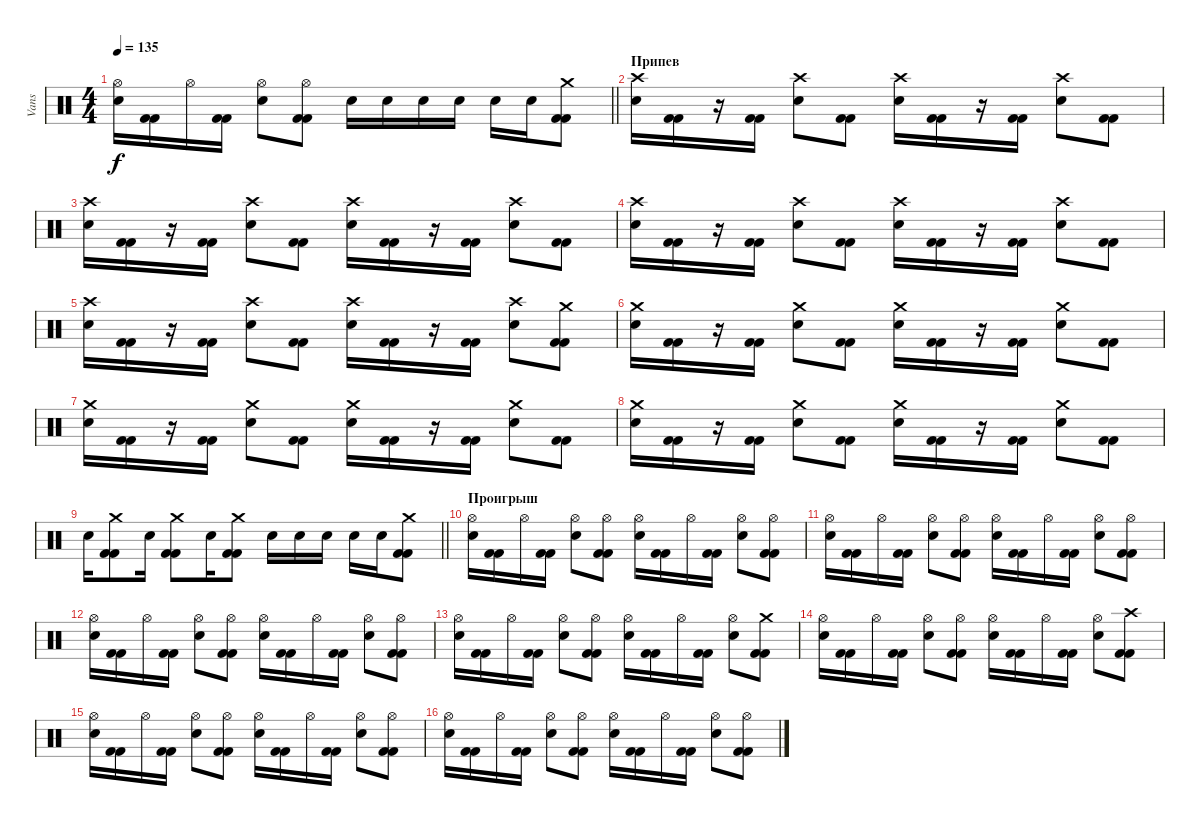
\track ("Vans" "Vans") {instrument percussion}
\staff {score}
\articulation defaults
\ts (4 4)
\tempo 135
\clef neutral
\barLineRight lightlight
\ks c
("Hi-Hat (open)" "Electric Snare (hit)").16{dy f} ("Kick (hit) 2" "Kick (hit) 2").16 "Hi-Hat (open)".16 ("Kick (hit) 2" "Kick (hit) 2").16 ("Hi-Hat (open)" "Electric Snare (hit)").8 ("Hi-Hat (open)" "Kick (hit) 2" "Kick (hit) 2").8 "Electric Snare (hit)".16 "Electric Snare (hit)".16 "Electric Snare (hit)".16 "Electric Snare (hit)".16 "Electric Snare (hit)".16 "Electric Snare (hit)".16 ("Crash medium (hit)" "Kick (hit) 2" "Kick (hit) 2").8 |
\section ("" "Припев")
("Crash high (hit)" "Electric Snare (hit)").16 ("Kick (hit) 2" "Kick (hit) 2").16 r.16 ("Kick (hit) 2" "Kick (hit) 2").16 ("Crash high (hit)" "Electric Snare (hit)").8 ("Kick (hit) 2" "Kick (hit) 2").8 ("Crash high (hit)" "Electric Snare (hit)").16 ("Kick (hit) 2" "Kick (hit) 2").16 r.16 ("Kick (hit) 2" "Kick (hit) 2").16 ("Crash high (hit)" "Electric Snare (hit)").8 ("Kick (hit) 2" "Kick (hit) 2").8 |
("Crash high (hit)" "Electric Snare (hit)").16 ("Kick (hit) 2" "Kick (hit) 2").16 r.16 ("Kick (hit) 2" "Kick (hit) 2").16 ("Crash high (hit)" "Electric Snare (hit)").8 ("Kick (hit) 2" "Kick (hit) 2").8 ("Crash high (hit)" "Electric Snare (hit)").16 ("Kick (hit) 2" "Kick (hit) 2").16 r.16 ("Kick (hit) 2" "Kick (hit) 2").16 ("Crash high (hit)" "Electric Snare (hit)").8 ("Kick (hit) 2" "Kick (hit) 2").8 |
("Crash high (hit)" "Electric Snare (hit)").16 ("Kick (hit) 2" "Kick (hit) 2").16 r.16 ("Kick (hit) 2" "Kick (hit) 2").16 ("Crash high (hit)" "Electric Snare (hit)").8 ("Kick (hit) 2" "Kick (hit) 2").8 ("Crash high (hit)" "Electric Snare (hit)").16 ("Kick (hit) 2" "Kick (hit) 2").16 r.16 ("Kick (hit) 2" "Kick (hit) 2").16 ("Crash high (hit)" "Electric Snare (hit)").8 ("Kick (hit) 2" "Kick (hit) 2").8 |
("Crash high (hit)" "Electric Snare (hit)").16 ("Kick (hit) 2" "Kick (hit) 2").16 r.16 ("Kick (hit) 2" "Kick (hit) 2").16 ("Crash high (hit)" "Electric Snare (hit)").8 ("Kick (hit) 2" "Kick (hit) 2").8 ("Crash high (hit)" "Electric Snare (hit)").16 ("Kick (hit) 2" "Kick (hit) 2").16 r.16 ("Kick (hit) 2" "Kick (hit) 2").16 ("Crash high (hit)" "Electric Snare (hit)").8 ("Crash medium (hit)" "Kick (hit) 2" "Kick (hit) 2").8 |
("Crash medium (hit)" "Electric Snare (hit)").16 ("Kick (hit) 2" "Kick (hit) 2").16 r.16 ("Kick (hit) 2" "Kick (hit) 2").16 ("Crash medium (hit)" "Electric Snare (hit)").8 ("Kick (hit) 2" "Kick (hit) 2").8 ("Crash medium (hit)" "Electric Snare (hit)").16 ("Kick (hit) 2" "Kick (hit) 2").16 r.16 ("Kick (hit) 2" "Kick (hit) 2").16 ("Crash medium (hit)" "Electric Snare (hit)").8 ("Kick (hit) 2" "Kick (hit) 2").8 |
("Crash medium (hit)" "Electric Snare (hit)").16 ("Kick (hit) 2" "Kick (hit) 2").16 r.16 ("Kick (hit) 2" "Kick (hit) 2").16 ("Crash medium (hit)" "Electric Snare (hit)").8 ("Kick (hit) 2" "Kick (hit) 2").8 ("Crash medium (hit)" "Electric Snare (hit)").16 ("Kick (hit) 2" "Kick (hit) 2").16 r.16 ("Kick (hit) 2" "Kick (hit) 2").16 ("Crash medium (hit)" "Electric Snare (hit)").8 ("Kick (hit) 2" "Kick (hit) 2").8 |
("Crash medium (hit)" "Electric Snare (hit)").16 ("Kick (hit) 2" "Kick (hit) 2").16 r.16 ("Kick (hit) 2" "Kick (hit) 2").16 ("Crash medium (hit)" "Electric Snare (hit)").8 ("Kick (hit) 2" "Kick (hit) 2").8 ("Crash medium (hit)" "Electric Snare (hit)").16 ("Kick (hit) 2" "Kick (hit) 2").16 r.16 ("Kick (hit) 2" "Kick (hit) 2").16 ("Crash medium (hit)" "Electric Snare (hit)").8 ("Kick (hit) 2" "Kick (hit) 2").8 |
\barLineRight lightlight "Electric Snare (hit)".16
("Crash medium (hit)" "Kick (hit) 2" "Kick (hit) 2").8 "Electric Snare (hit)".16 ("Crash medium (hit)" "Kick (hit) 2" "Kick (hit) 2").8 "Electric Snare (hit)".16 ("Crash medium (hit)" "Kick (hit) 2" "Kick (hit) 2").8 "Electric Snare (hit)".16 "Electric Snare (hit)".16 "Electric Snare (hit)".16 "Electric Snare (hit)".16 "Electric Snare (hit)".16 ("Crash medium (hit)" "Kick (hit) 2" "Kick (hit) 2").8 |
\section ("" "Проигрыш")
("Hi-Hat (open)" "Electric Snare (hit)").16 ("Kick (hit) 2" "Kick (hit) 2").16 "Hi-Hat (open)".16 ("Kick (hit) 2" "Kick (hit) 2").16 ("Hi-Hat (open)" "Electric Snare (hit)").8 ("Hi-Hat (open)" "Kick (hit) 2" "Kick (hit) 2").8 ("Hi-Hat (open)" "Electric Snare (hit)").16 ("Kick (hit) 2" "Kick (hit) 2").16 "Hi-Hat (open)".16 ("Kick (hit) 2" "Kick (hit) 2").16 ("Hi-Hat (open)" "Electric Snare (hit)").8 ("Hi-Hat (open)" "Kick (hit) 2" "Kick (hit) 2").8 |
("Hi-Hat (open)" "Electric Snare (hit)").16 ("Kick (hit) 2" "Kick (hit) 2").16 "Hi-Hat (open)".16 ("Kick (hit) 2" "Kick (hit) 2").16 ("Hi-Hat (open)" "Electric Snare (hit)").8 ("Hi-Hat (open)" "Kick (hit) 2" "Kick (hit) 2").8 ("Hi-Hat (open)" "Electric Snare (hit)").16 ("Kick (hit) 2" "Kick (hit) 2").16 "Hi-Hat (open)".16 ("Kick (hit) 2" "Kick (hit) 2").16 ("Hi-Hat (open)" "Electric Snare (hit)").8 ("Hi-Hat (open)" "Kick (hit) 2" "Kick (hit) 2").8 |
("Hi-Hat (open)" "Electric Snare (hit)").16 ("Kick (hit) 2" "Kick (hit) 2").16 "Hi-Hat (open)".16 ("Kick (hit) 2" "Kick (hit) 2").16 ("Hi-Hat (open)" "Electric Snare (hit)").8 ("Hi-Hat (open)" "Kick (hit) 2" "Kick (hit) 2").8 ("Hi-Hat (open)" "Electric Snare (hit)").16 ("Kick (hit) 2" "Kick (hit) 2").16 "Hi-Hat (open)".16 ("Kick (hit) 2" "Kick (hit) 2").16 ("Hi-Hat (open)" "Electric Snare (hit)").8 ("Hi-Hat (open)" "Kick (hit) 2" "Kick (hit) 2").8 |
("Hi-Hat (open)" "Electric Snare (hit)").16 ("Kick (hit) 2" "Kick (hit) 2").16 "Hi-Hat (open)".16 ("Kick (hit) 2" "Kick (hit) 2").16 ("Hi-Hat (open)" "Electric Snare (hit)").8 ("Hi-Hat (open)" "Kick (hit) 2" "Kick (hit) 2").8 ("Hi-Hat (open)" "Electric Snare (hit)").16 ("Kick (hit) 2" "Kick (hit) 2").16 "Hi-Hat (open)".16 ("Kick (hit) 2" "Kick (hit) 2").16 ("Hi-Hat (open)" "Electric Snare (hit)").8 ("Crash medium (hit)" "Kick (hit) 2" "Kick (hit) 2").8 |
("Hi-Hat (open)" "Electric Snare (hit)").16 ("Kick (hit) 2" "Kick (hit) 2").16 "Hi-Hat (open)".16 ("Kick (hit) 2" "Kick (hit) 2").16 ("Hi-Hat (open)" "Electric Snare (hit)").8 ("Hi-Hat (open)" "Kick (hit) 2" "Kick (hit) 2").8 ("Hi-Hat (open)" "Electric Snare (hit)").16 ("Kick (hit) 2" "Kick (hit) 2").16 "Hi-Hat (open)".16 ("Kick (hit) 2" "Kick (hit) 2").16 ("Hi-Hat (open)" "Electric Snare (hit)").8 ("Crash high (hit)" "Kick (hit) 2" "Kick (hit) 2").8 |
("Hi-Hat (open)" "Electric Snare (hit)").16 ("Kick (hit) 2" "Kick (hit) 2").16 "Hi-Hat (open)".16 ("Kick (hit) 2" "Kick (hit) 2").16 ("Hi-Hat (open)" "Electric Snare (hit)").8 ("Hi-Hat (open)" "Kick (hit) 2" "Kick (hit) 2").8 ("Hi-Hat (open)" "Electric Snare (hit)").16 ("Kick (hit) 2" "Kick (hit) 2").16 "Hi-Hat (open)".16 ("Kick (hit) 2" "Kick (hit) 2").16 ("Hi-Hat (open)" "Electric Snare (hit)").8 ("Hi-Hat (open)" "Kick (hit) 2" "Kick (hit) 2").8 |
("Hi-Hat (open)" "Electric Snare (hit)").16 ("Kick (hit) 2" "Kick (hit) 2").16 "Hi-Hat (open)".16 ("Kick (hit) 2" "Kick (hit) 2").16 ("Hi-Hat (open)" "Electric Snare (hit)").8 ("Hi-Hat (open)" "Kick (hit) 2" "Kick (hit) 2").8 ("Hi-Hat (open)" "Electric Snare (hit)").16 ("Kick (hit) 2" "Kick (hit) 2").16 "Hi-Hat (open)".16 ("Kick (hit) 2" "Kick (hit) 2").16 ("Hi-Hat (open)" "Electric Snare (hit)").8 ("Hi-Hat (open)" "Kick (hit) 2" "Kick (hit) 2").8
